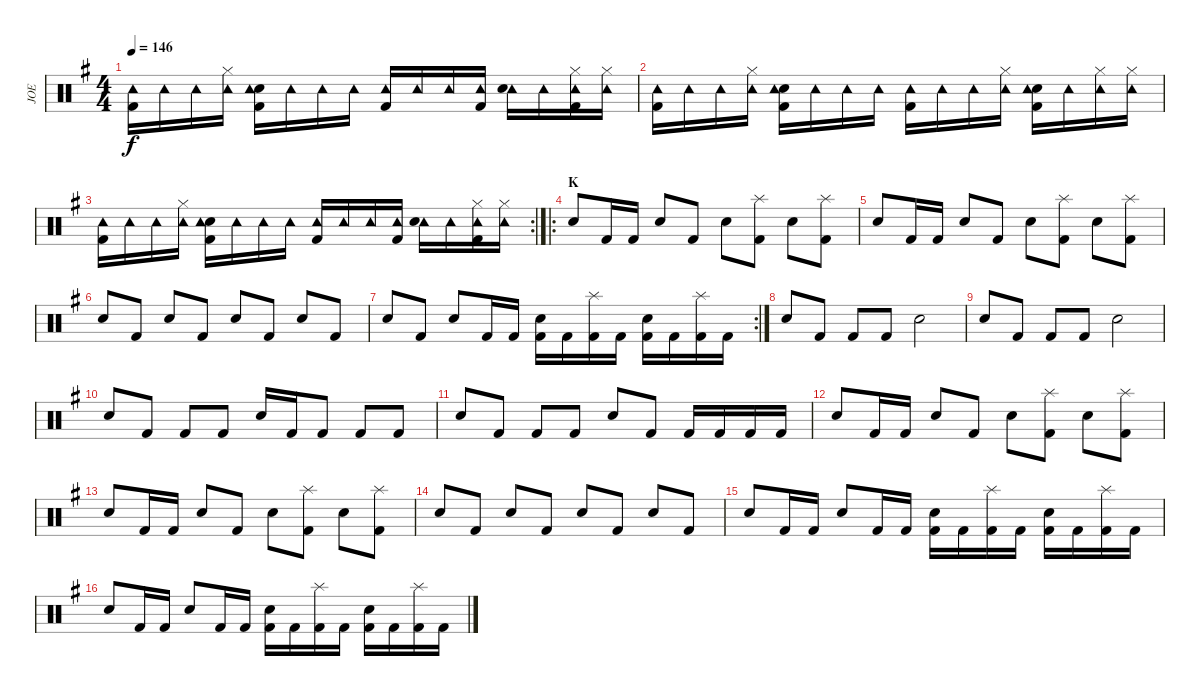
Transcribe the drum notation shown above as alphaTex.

\track ("JOE" "JOE") {instrument percussion}
\staff {score}
\articulation defaults
\ts (4 4)
\tempo 146
\clef neutral
\ks eminor
("Tambourine (hit)" "Kick (hit) 2").16{dy f} "Tambourine (hit)".16 "Tambourine (hit)".16 ("Hi-Hat (closed)" "Tambourine (hit)").16 ("Snare (hit) 2" "Tambourine (hit)" "Kick (hit) 2").16 "Tambourine (hit)".16 "Tambourine (hit)".16 "Tambourine (hit)".16 ("Tambourine (hit)" "Kick (hit) 2").16 "Tambourine (hit)".16 "Tambourine (hit)".16 ("Tambourine (hit)" "Kick (hit) 2").16 ("Tambourine (hit)" "Snare (hit) 2").16 "Tambourine (hit)".16 ("Hi-Hat (closed)" "Tambourine (hit)" "Kick (hit) 2").16 ("Hi-Hat (closed)" "Tambourine (hit)").16 |
("Tambourine (hit)" "Kick (hit) 2").16 "Tambourine (hit)".16 "Tambourine (hit)".16 ("Hi-Hat (closed)" "Tambourine (hit)").16 ("Snare (hit) 2" "Tambourine (hit)" "Kick (hit) 2").16 "Tambourine (hit)".16 "Tambourine (hit)".16 "Tambourine (hit)".16 ("Tambourine (hit)" "Kick (hit) 2").16 "Tambourine (hit)".16 "Tambourine (hit)".16 ("Hi-Hat (closed)" "Tambourine (hit)").16 ("Snare (hit) 2" "Tambourine (hit)" "Kick (hit) 2").16 "Tambourine (hit)".16 ("Hi-Hat (closed)" "Tambourine (hit)").16 ("Hi-Hat (closed)" "Tambourine (hit)").16 |
\rc 2
("Tambourine (hit)" "Kick (hit) 2").16 "Tambourine (hit)".16 "Tambourine (hit)".16 ("Hi-Hat (closed)" "Tambourine (hit)").16 ("Snare (hit) 2" "Tambourine (hit)" "Kick (hit) 2").16 "Tambourine (hit)".16 "Tambourine (hit)".16 "Tambourine (hit)".16 ("Tambourine (hit)" "Kick (hit) 2").16 "Tambourine (hit)".16 "Tambourine (hit)".16 ("Tambourine (hit)" "Kick (hit) 2").16 ("Tambourine (hit)" "Snare (hit) 2").16 "Tambourine (hit)".16 ("Hi-Hat (closed)" "Tambourine (hit)" "Kick (hit) 2").16 ("Hi-Hat (closed)" "Tambourine (hit)").16 |
\ro
\section ("" "K")
"Snare (hit) 2".8 "Kick (hit) 2".16 "Kick (hit) 2".16 "Snare (hit) 2".8 "Kick (hit) 2".8 "Snare (hit) 2".8 ("Splash (hit)" "Kick (hit) 2").8 "Snare (hit) 2".8 ("Splash (hit)" "Kick (hit) 2").8 |
"Snare (hit) 2".8 "Kick (hit) 2".16 "Kick (hit) 2".16 "Snare (hit) 2".8 "Kick (hit) 2".8 "Snare (hit) 2".8 ("Splash (hit)" "Kick (hit) 2").8 "Snare (hit) 2".8 ("Splash (hit)" "Kick (hit) 2").8 |
"Snare (hit) 2".8 "Kick (hit) 2".8 "Snare (hit) 2".8 "Kick (hit) 2".8 "Snare (hit) 2".8 "Kick (hit) 2".8 "Snare (hit) 2".8 "Kick (hit) 2".8 |
\rc 2 "Snare (hit) 2".8 "Kick (hit) 2".8 "Snare (hit) 2".8 "Kick (hit) 2".16 "Kick (hit) 2".16
("Snare (hit) 2" "Kick (hit) 2").16 "Kick (hit) 2".16 ("Splash (hit)" "Kick (hit) 2").16 "Kick (hit) 2".16 ("Snare (hit) 2" "Kick (hit) 2").16 "Kick (hit) 2".16 ("Splash (hit)" "Kick (hit) 2").16 "Kick (hit) 2".16 |
"Snare (hit) 2".8 "Kick (hit) 2".8 "Kick (hit) 2".8 "Kick (hit) 2".8 "Snare (hit) 2".2 |
"Snare (hit) 2".8 "Kick (hit) 2".8 "Kick (hit) 2".8 "Kick (hit) 2".8 "Snare (hit) 2".2 |
"Snare (hit) 2".8 "Kick (hit) 2".8 "Kick (hit) 2".8 "Kick (hit) 2".8 "Snare (hit) 2".16 "Kick (hit) 2".16 "Kick (hit) 2".8 "Kick (hit) 2".8 "Kick (hit) 2".8 |
"Snare (hit) 2".8 "Kick (hit) 2".8 "Kick (hit) 2".8 "Kick (hit) 2".8 "Snare (hit) 2".8 "Kick (hit) 2".8 "Kick (hit) 2".16 "Kick (hit) 2".16 "Kick (hit) 2".16 "Kick (hit) 2".16 |
"Snare (hit) 2".8 "Kick (hit) 2".16 "Kick (hit) 2".16 "Snare (hit) 2".8 "Kick (hit) 2".8 "Snare (hit) 2".8 ("Splash (hit)" "Kick (hit) 2").8 "Snare (hit) 2".8 ("Splash (hit)" "Kick (hit) 2").8 |
"Snare (hit) 2".8 "Kick (hit) 2".16 "Kick (hit) 2".16 "Snare (hit) 2".8 "Kick (hit) 2".8 "Snare (hit) 2".8 ("Splash (hit)" "Kick (hit) 2").8 "Snare (hit) 2".8 ("Splash (hit)" "Kick (hit) 2").8 |
"Snare (hit) 2".8 "Kick (hit) 2".8 "Snare (hit) 2".8 "Kick (hit) 2".8 "Snare (hit) 2".8 "Kick (hit) 2".8 "Snare (hit) 2".8 "Kick (hit) 2".8 |
"Snare (hit) 2".8 "Kick (hit) 2".16 "Kick (hit) 2".16 "Snare (hit) 2".8 "Kick (hit) 2".16 "Kick (hit) 2".16 ("Snare (hit) 2" "Kick (hit) 2").16 "Kick (hit) 2".16 ("Splash (hit)" "Kick (hit) 2").16 "Kick (hit) 2".16 ("Snare (hit) 2" "Kick (hit) 2").16 "Kick (hit) 2".16 ("Splash (hit)" "Kick (hit) 2").16 "Kick (hit) 2".16 |
"Snare (hit) 2".8 "Kick (hit) 2".16 "Kick (hit) 2".16 "Snare (hit) 2".8 "Kick (hit) 2".16 "Kick (hit) 2".16 ("Snare (hit) 2" "Kick (hit) 2").16 "Kick (hit) 2".16 ("Splash (hit)" "Kick (hit) 2").16 "Kick (hit) 2".16 ("Snare (hit) 2" "Kick (hit) 2").16 "Kick (hit) 2".16 ("Splash (hit)" "Kick (hit) 2").16 "Kick (hit) 2".16
